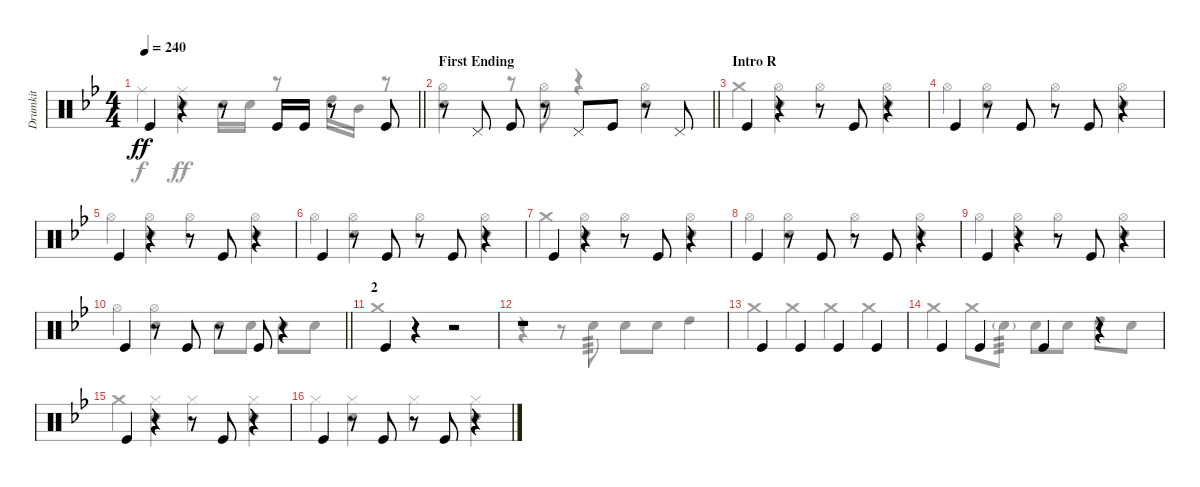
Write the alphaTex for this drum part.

\track ("Drumkit" "Drumkit") {instrument percussion}
\staff {score}
\articulation defaults
\voice
\ts (4 4)
\tempo 240
\clef neutral
\barLineRight lightlight
\ks bb "Kick (hit)".4{dy ff}
r.4 r.8 "Kick (hit)".16 "Kick (hit)".16 r.8 "Kick (hit)".8 |
\section ("" "First Ending")
\barLineRight lightlight
r.8 "Pedal Hi-Hat (hit)".8 "Kick (hit)".8 r.8 "Pedal Hi-Hat (hit)".8 "Kick (hit)".8 r.8 "Pedal Hi-Hat (hit)".8 |
\section ("" "Intro R")
"Kick (hit)".4 r.4 r.8 "Kick (hit)".8 r.4 |
"Kick (hit)".4 r.8 "Kick (hit)".8 r.8 "Kick (hit)".8 r.4 |
"Kick (hit)".4 r.4 r.8 "Kick (hit)".8 r.4 |
"Kick (hit)".4 r.8 "Kick (hit)".8 r.8 "Kick (hit)".8 r.4 |
"Kick (hit)".4 r.4 r.8 "Kick (hit)".8 r.4 |
"Kick (hit)".4 r.8 "Kick (hit)".8 r.8 "Kick (hit)".8 r.4 |
"Kick (hit)".4 r.4 r.8 "Kick (hit)".8 r.4 |
\barLineRight lightlight "Kick (hit)".4
r.8 "Kick (hit)".8 r.8 "Kick (hit)".8 r.4 |
\section ("" "2")
"Kick (hit)".4 r.4 r.2 |
r.1 |
"Kick (hit)".4 "Kick (hit)".4 "Kick (hit)".4 "Kick (hit)".4 |
"Kick (hit)".4 "Kick (hit)".4 "Kick (hit)".4 r.4 |
"Kick (hit)".4 r.4 r.8 "Kick (hit)".8 r.4 |
"Kick (hit)".4 r.8 "Kick (hit)".8 r.8 "Kick (hit)".8 r.4
\voice
\clef neutral
\ottava regular
\simile none
\barLineRight lightlight
\ks bb "Ride (middle)".4{dy f}
("Ride (middle)" "Snare (hit) 2").4{dy ff} "Snare (hit) 2".16 "Snare (hit) 2".16 r.8 "High Tom (hit)".16 "Mid Tom (hit)".16 r.8 |
\barLineRight lightlight
("Hi-Hat (open)" "Snare (hit) 2").4 r.8 ("Snare (hit) 2" "Hi-Hat (open)").8 r.4 ("Hi-Hat (open)" "Snare (hit) 2").4 |
"Crash medium (hit)".4 ("Hi-Hat (open)" "Snare (hit) 2").4 "Hi-Hat (open)".4 ("Hi-Hat (open)" "Snare (hit) 2").4 |
"Hi-Hat (open)".4 ("Hi-Hat (open)" "Snare (hit) 2").4 "Hi-Hat (open)".4 ("Hi-Hat (open)" "Snare (hit) 2").4 |
"Hi-Hat (open)".4 ("Hi-Hat (open)" "Snare (hit) 2").4 "Hi-Hat (open)".4 ("Hi-Hat (open)" "Snare (hit) 2").4 |
"Hi-Hat (open)".4 ("Hi-Hat (open)" "Snare (hit) 2").4 "Hi-Hat (open)".4 ("Hi-Hat (open)" "Snare (hit) 2").4 |
"Crash medium (hit)".4 ("Hi-Hat (open)" "Snare (hit) 2").4 "Hi-Hat (open)".4 ("Hi-Hat (open)" "Snare (hit) 2").4 |
"Hi-Hat (open)".4 ("Hi-Hat (open)" "Snare (hit) 2").4 "Hi-Hat (open)".4 ("Hi-Hat (open)" "Snare (hit) 2").4 |
"Hi-Hat (open)".4 ("Hi-Hat (open)" "Snare (hit) 2").4 "Hi-Hat (open)".4 ("Hi-Hat (open)" "Snare (hit) 2").4 |
\barLineRight lightlight "Hi-Hat (open)".4
("Hi-Hat (open)" "Snare (hit) 2").4 "Snare (hit) 2".8 "Snare (hit) 2".8 "Snare (hit) 2".8 "Snare (hit) 2".8 |
"Crash medium (hit)".1 |
r.4 r.8 "Snare (hit) 2".8{tp 3} "Snare (hit) 2".8 "Snare (hit) 2".8 "High Tom (hit)".4 |
"Crash medium (hit)".4 "Crash medium (hit)".4 "Crash medium (hit)".4 "Crash medium (hit)".4 |
"Crash medium (hit)".4 "Crash medium (hit)".8 "Snare (hit) 2"{g}.8{tp 3} "Snare (hit) 2".8 "Snare (hit) 2".8 "High Tom (hit)".8 "Snare (hit) 2".8 |
"Crash medium (hit)".4 ("Hi-Hat (closed)" "Snare (hit) 2").4 "Hi-Hat (closed)".4 ("Hi-Hat (closed)" "Snare (hit) 2").4 |
"Hi-Hat (closed)".4 ("Hi-Hat (closed)" "Snare (hit) 2").4 "Hi-Hat (closed)".4 ("Hi-Hat (closed)" "Snare (hit) 2").4
